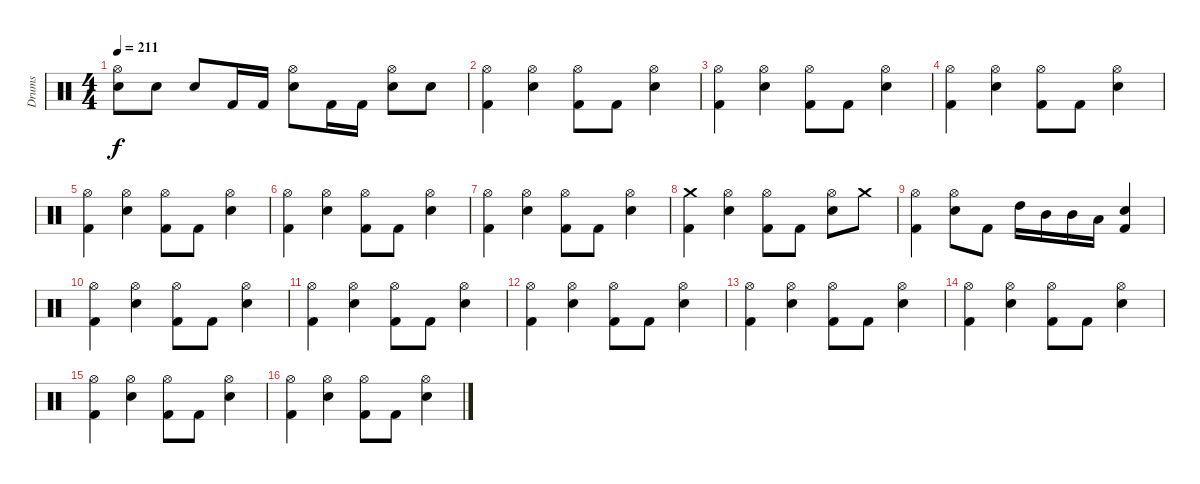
\track ("Drums" "Drums") {instrument percussion}
\staff {score}
\articulation defaults
\ts (4 4)
\tempo 211
\clef neutral
\ks c
("Snare (hit) 2" "Hi-Hat (open)").8{dy f} "Snare (hit) 2".8 "Snare (hit) 2".8 "Kick (hit) 2".16 "Kick (hit) 2".16 ("Snare (hit) 2" "Hi-Hat (open)").8 "Kick (hit) 2".16 "Kick (hit) 2".16 ("Snare (hit) 2" "Hi-Hat (open)").8 "Snare (hit) 2".8 |
("Hi-Hat (open)" "Kick (hit) 2").4 ("Hi-Hat (open)" "Snare (hit) 2").4 ("Hi-Hat (open)" "Kick (hit) 2").8 "Kick (hit) 2".8 ("Hi-Hat (open)" "Snare (hit) 2").4 |
("Hi-Hat (open)" "Kick (hit) 2").4 ("Hi-Hat (open)" "Snare (hit) 2").4 ("Hi-Hat (open)" "Kick (hit) 2").8 "Kick (hit) 2".8 ("Hi-Hat (open)" "Snare (hit) 2").4 |
("Hi-Hat (open)" "Kick (hit) 2").4 ("Hi-Hat (open)" "Snare (hit) 2").4 ("Hi-Hat (open)" "Kick (hit) 2").8 "Kick (hit) 2".8 ("Hi-Hat (open)" "Snare (hit) 2").4 |
("Hi-Hat (open)" "Kick (hit) 2").4 ("Hi-Hat (open)" "Snare (hit) 2").4 ("Hi-Hat (open)" "Kick (hit) 2").8 "Kick (hit) 2".8 ("Hi-Hat (open)" "Snare (hit) 2").4 |
("Hi-Hat (open)" "Kick (hit) 2").4 ("Hi-Hat (open)" "Snare (hit) 2").4 ("Hi-Hat (open)" "Kick (hit) 2").8 "Kick (hit) 2".8 ("Hi-Hat (open)" "Snare (hit) 2").4 |
("Hi-Hat (open)" "Kick (hit) 2").4 ("Hi-Hat (open)" "Snare (hit) 2").4 ("Hi-Hat (open)" "Kick (hit) 2").8 "Kick (hit) 2".8 ("Hi-Hat (open)" "Snare (hit) 2").4 |
("Crash medium (hit)" "Kick (hit) 2").4 ("Hi-Hat (open)" "Snare (hit) 2").4 ("Hi-Hat (open)" "Kick (hit) 2").8 "Kick (hit) 2".8 ("Hi-Hat (open)" "Snare (hit) 2").8 "Crash medium (hit)".8 |
("Hi-Hat (open)" "Kick (hit) 2").4 ("Hi-Hat (open)" "Snare (hit) 2").8 "Kick (hit) 2".8 "High Tom (hit)".16 "Mid Tom (hit)".16 "Mid Tom (hit)".16 "Low Tom (hit)".16 ("Snare (hit) 2" "Kick (hit) 2").4 |
("Hi-Hat (open)" "Kick (hit) 2").4 ("Hi-Hat (open)" "Snare (hit) 2").4 ("Hi-Hat (open)" "Kick (hit) 2").8 "Kick (hit) 2".8 ("Hi-Hat (open)" "Snare (hit) 2").4 |
("Hi-Hat (open)" "Kick (hit) 2").4 ("Hi-Hat (open)" "Snare (hit) 2").4 ("Hi-Hat (open)" "Kick (hit) 2").8 "Kick (hit) 2".8 ("Hi-Hat (open)" "Snare (hit) 2").4 |
("Hi-Hat (open)" "Kick (hit) 2").4 ("Hi-Hat (open)" "Snare (hit) 2").4 ("Hi-Hat (open)" "Kick (hit) 2").8 "Kick (hit) 2".8 ("Hi-Hat (open)" "Snare (hit) 2").4 |
("Hi-Hat (open)" "Kick (hit) 2").4 ("Hi-Hat (open)" "Snare (hit) 2").4 ("Hi-Hat (open)" "Kick (hit) 2").8 "Kick (hit) 2".8 ("Hi-Hat (open)" "Snare (hit) 2").4 |
("Hi-Hat (open)" "Kick (hit) 2").4 ("Hi-Hat (open)" "Snare (hit) 2").4 ("Hi-Hat (open)" "Kick (hit) 2").8 "Kick (hit) 2".8 ("Hi-Hat (open)" "Snare (hit) 2").4 |
("Hi-Hat (open)" "Kick (hit) 2").4 ("Hi-Hat (open)" "Snare (hit) 2").4 ("Hi-Hat (open)" "Kick (hit) 2").8 "Kick (hit) 2".8 ("Hi-Hat (open)" "Snare (hit) 2").4 |
("Hi-Hat (open)" "Kick (hit) 2").4 ("Hi-Hat (open)" "Snare (hit) 2").4 ("Hi-Hat (open)" "Kick (hit) 2").8 "Kick (hit) 2".8 ("Hi-Hat (open)" "Snare (hit) 2").4
